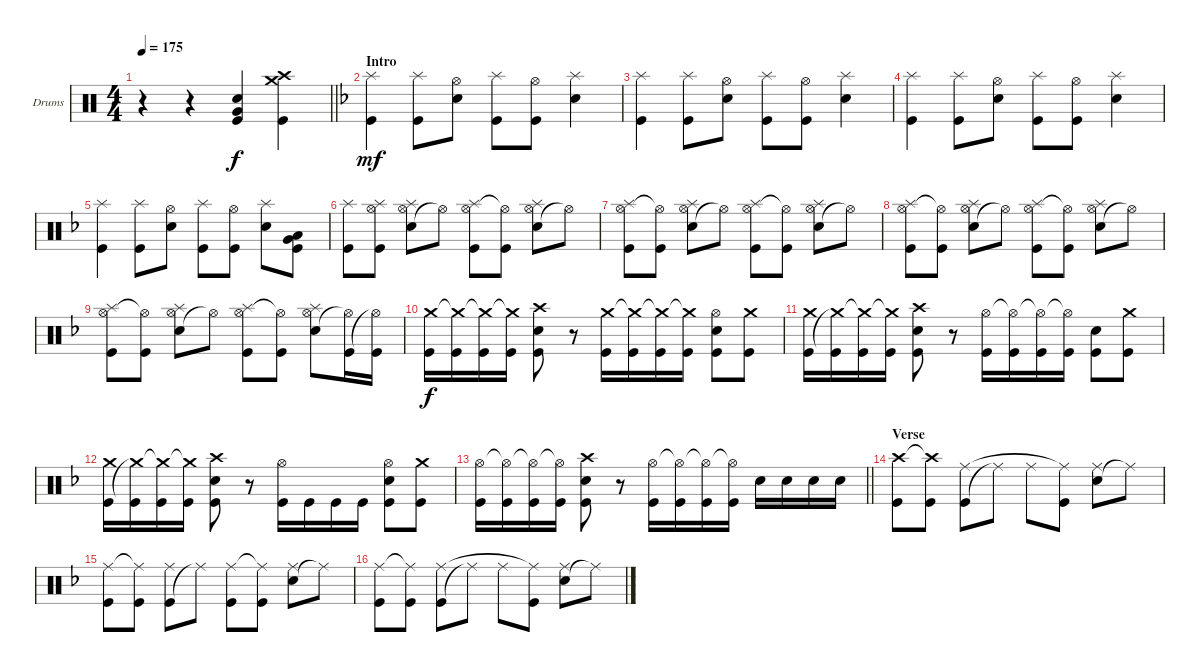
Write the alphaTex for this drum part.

\bracketExtendMode groupsimilarinstruments
\firstSystemTrackNameOrientation horizontal
\otherSystemsTrackNameOrientation horizontal
\track ("Drumkit" "Drums") {instrument percussion}
\staff {score}
\articulation defaults
\ts (4 4)
\beaming (8 2 2 2 2)
\tempo 175
\clef neutral
\barLineRight lightlight
\ks c
r.4{dy f} r.4 ("Very Low Tom (hit)" "Snare (hit) 2" "Kick (hit)").4 ("Crash medium (hit)" "Crash high (hit)" "Kick (hit)").4 |
\section ("" "Intro")
\ks f
("Kick (hit)" "Splash (hit)").4{dy mf} ("Kick (hit)" "Splash (hit)").8 ("Snare (hit) 2" "Hi-Hat (open)").8 ("Kick (hit)" "Splash (hit)").8 ("Kick (hit)" "Hi-Hat (open)").8 ("Snare (hit) 2" "Splash (hit)").4 |
("Kick (hit)" "Splash (hit)").4 ("Kick (hit)" "Splash (hit)").8 ("Snare (hit) 2" "Hi-Hat (open)").8 ("Kick (hit)" "Splash (hit)").8 ("Kick (hit)" "Hi-Hat (open)").8 ("Snare (hit) 2" "Splash (hit)").4 |
("Kick (hit)" "Splash (hit)").4 ("Kick (hit)" "Splash (hit)").8 ("Snare (hit) 2" "Hi-Hat (open)").8 ("Kick (hit)" "Splash (hit)").8 ("Kick (hit)" "Hi-Hat (open)").8 ("Snare (hit) 2" "Splash (hit)").4 |
("Kick (hit)" "Splash (hit)").4 ("Kick (hit)" "Splash (hit)").8 ("Snare (hit) 2" "Hi-Hat (open)").8 ("Kick (hit)" "Splash (hit)").8 ("Kick (hit)" "Hi-Hat (open)").8 ("Snare (hit) 2" "Splash (hit)").8 ("Very Low Tom (hit)" "Low Tom (hit)" "Kick (hit)").8 |
("Kick (hit)" "Splash (hit)").8 ("Kick (hit)" "Hi-Hat (open)" "Splash (hit)").8 ("Snare (hit) 2" "Hi-Hat (open)" "Splash (hit)").8 "Hi-Hat (open)"{t}.8 ("Kick (hit)" "Hi-Hat (open)" "Splash (hit)").8 ("Kick (hit)" "Hi-Hat (open)"{t}).8 ("Snare (hit) 2" "Hi-Hat (open)" "Splash (hit)").8 "Hi-Hat (open)"{t}.8 |
("Kick (hit)" "Hi-Hat (open)" "Splash (hit)").8 ("Kick (hit)" "Hi-Hat (open)"{t}).8 ("Snare (hit) 2" "Hi-Hat (open)" "Splash (hit)").8 "Hi-Hat (open)"{t}.8 ("Kick (hit)" "Hi-Hat (open)" "Splash (hit)").8 ("Kick (hit)" "Hi-Hat (open)"{t}).8 ("Snare (hit) 2" "Hi-Hat (open)" "Splash (hit)").8 "Hi-Hat (open)"{t}.8 |
("Kick (hit)" "Hi-Hat (open)" "Splash (hit)").8 ("Kick (hit)" "Hi-Hat (open)"{t}).8 ("Snare (hit) 2" "Hi-Hat (open)" "Splash (hit)").8 "Hi-Hat (open)"{t}.8 ("Kick (hit)" "Hi-Hat (open)" "Splash (hit)").8 ("Kick (hit)" "Hi-Hat (open)"{t}).8 ("Snare (hit) 2" "Hi-Hat (open)" "Splash (hit)").8 "Hi-Hat (open)"{t}.8 |
("Kick (hit)" "Hi-Hat (open)" "Splash (hit)").8 ("Kick (hit)" "Hi-Hat (open)"{t}).8 ("Snare (hit) 2" "Hi-Hat (open)" "Splash (hit)").8 "Hi-Hat (open)"{t}.8 ("Kick (hit)" "Hi-Hat (open)" "Splash (hit)").8 ("Kick (hit)" "Hi-Hat (open)"{t}).8 ("Snare (hit) 2" "Hi-Hat (open)" "Splash (hit)").8 ("Hi-Hat (open)"{t} "Kick (hit)").16 ("Kick (hit)" "Hi-Hat (open)"{t}).16 |
("Kick (hit)" "Crash medium (hit)").16{dy f} ("Kick (hit)" "Crash medium (hit)"{t}).16 ("Kick (hit)" "Crash medium (hit)"{t}).16 ("Kick (hit)" "Crash medium (hit)"{t}).16 ("Crash high (hit)" "Snare (hit) 2" "Kick (hit)").8 r.8 ("Kick (hit)" "Crash medium (hit)").16 ("Kick (hit)" "Crash medium (hit)"{t}).16 ("Kick (hit)" "Crash medium (hit)"{t}).16 ("Kick (hit)" "Crash medium (hit)"{t}).16 ("Snare (hit) 2" "Kick (hit)" "Hi-Hat (open)").8 ("Crash medium (hit)" "Kick (hit)").8 |
("Crash medium (hit)" "Kick (hit)").16 ("Kick (hit)" "Crash medium (hit)"{t}).16 ("Kick (hit)" "Crash medium (hit)"{t}).16 ("Kick (hit)" "Crash medium (hit)"{t}).16 ("Crash high (hit)" "Snare (hit) 2" "Kick (hit)").8 r.8 ("Kick (hit)" "Hi-Hat (open)").16 ("Kick (hit)" "Hi-Hat (open)"{t}).16 ("Kick (hit)" "Hi-Hat (open)"{t}).16 ("Kick (hit)" "Hi-Hat (open)"{t}).16 ("Snare (hit) 2" "Kick (hit)").8 ("Crash medium (hit)" "Kick (hit)").8 |
("Crash medium (hit)" "Kick (hit)").16 ("Kick (hit)" "Crash medium (hit)"{t}).16 ("Kick (hit)" "Crash medium (hit)"{t}).16 ("Kick (hit)" "Crash medium (hit)"{t}).16 ("Crash high (hit)" "Snare (hit) 2" "Kick (hit)").8 r.8 ("Kick (hit)" "Hi-Hat (open)").16 "Kick (hit)".16 "Kick (hit)".16 "Kick (hit)".16 ("Snare (hit) 2" "Kick (hit)" "Hi-Hat (open)").8 ("Crash medium (hit)" "Kick (hit)").8 |
\barLineRight lightlight
("Kick (hit)" "Hi-Hat (open)").16 ("Kick (hit)" "Hi-Hat (open)"{t}).16 ("Kick (hit)" "Hi-Hat (open)"{t}).16 ("Kick (hit)" "Hi-Hat (open)"{t}).16 ("Crash high (hit)" "Snare (hit) 2" "Kick (hit)").8 r.8 ("Kick (hit)" "Hi-Hat (open)").16 ("Kick (hit)" "Hi-Hat (open)"{t}).16 ("Kick (hit)" "Hi-Hat (open)"{t}).16 ("Kick (hit)" "Hi-Hat (open)"{t}).16 "Snare (hit) 2".16 "Snare (hit) 2".16 "Snare (hit) 2".16 "Snare (hit) 2".16 |
\section ("" "Verse")
("Kick (hit)" "Crash high (hit)").8 ("Kick (hit)" "Crash high (hit)"{t}).8 ("Kick (hit)" "Ride (middle)").8 "Ride (middle)"{t}.8 "Ride (middle)".8 ("Kick (hit)" "Ride (middle)"{t}).8 ("Snare (hit) 2" "Ride (middle)").8 "Ride (middle)"{t}.8 |
("Kick (hit)" "Ride (middle)").8 ("Kick (hit)" "Ride (middle)"{t}).8 ("Kick (hit)" "Ride (middle)").8 "Ride (middle)"{t}.8 ("Kick (hit)" "Ride (middle)").8 ("Kick (hit)" "Ride (middle)"{t}).8 ("Snare (hit) 2" "Ride (middle)").8 "Ride (middle)"{t}.8 |
("Kick (hit)" "Ride (middle)").8 ("Kick (hit)" "Ride (middle)"{t}).8 ("Kick (hit)" "Ride (middle)").8 "Ride (middle)"{t}.8 "Ride (middle)".8 ("Kick (hit)" "Ride (middle)"{t}).8 ("Snare (hit) 2" "Ride (middle)").8 "Ride (middle)"{t}.8
